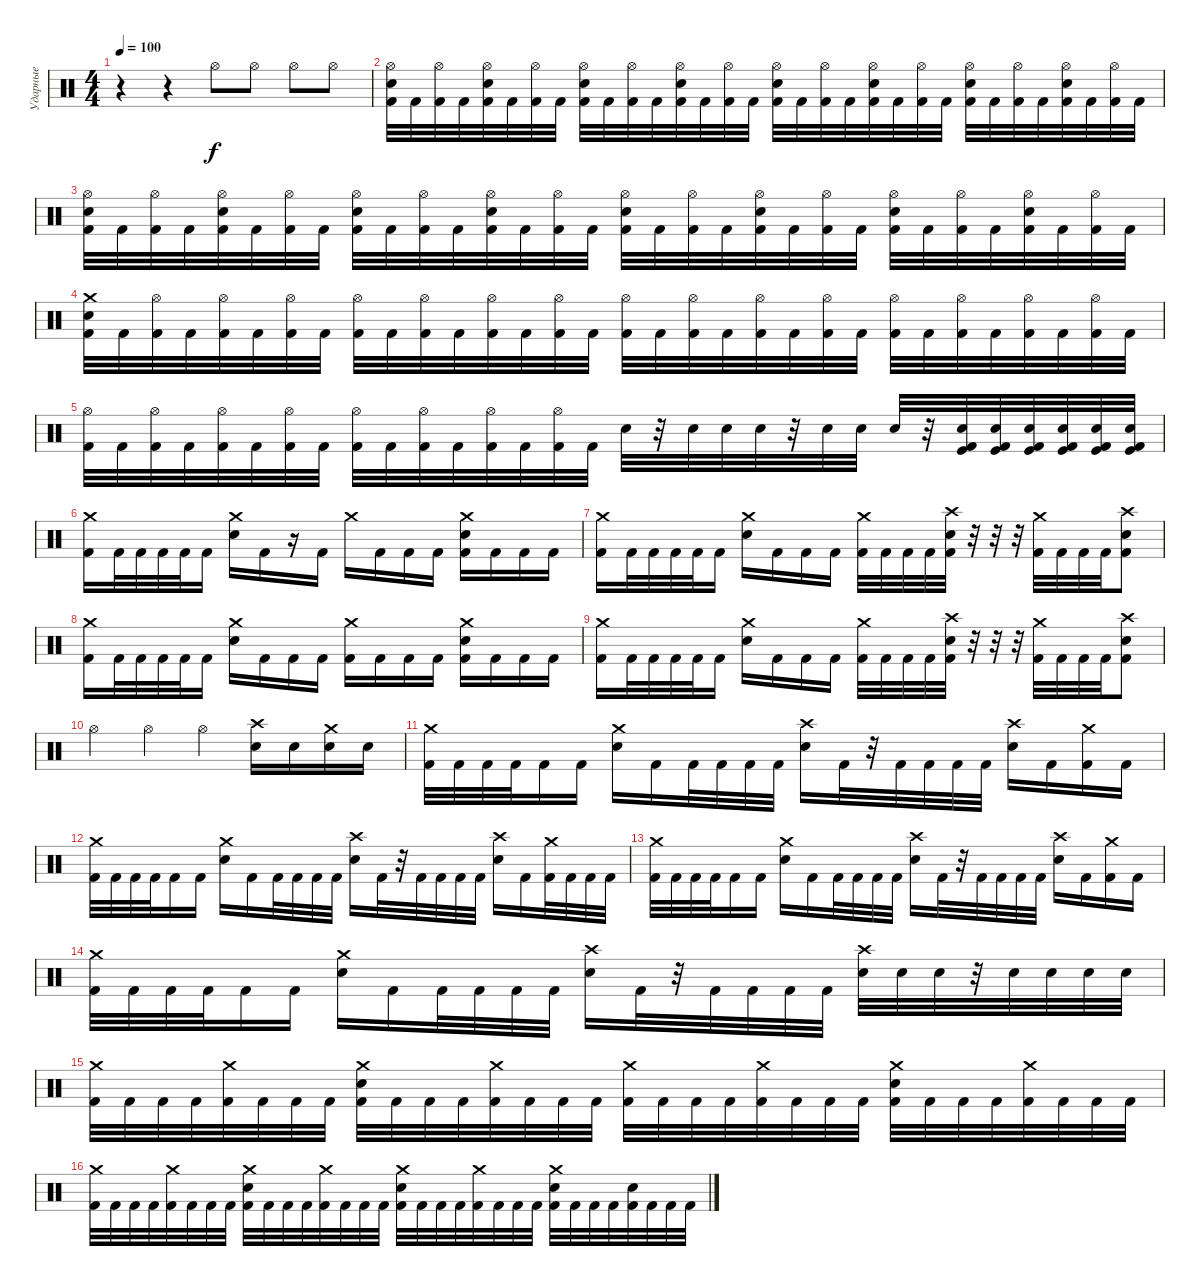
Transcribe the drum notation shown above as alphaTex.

\track ("Ударные" "Ударные") {instrument percussion}
\staff {score}
\articulation defaults
\ts (4 4)
\tempo 100
\clef neutral
\ks c
r.4{dy f} r.4 "Hi-Hat (open)".8 "Hi-Hat (open)".8 "Hi-Hat (open)".8 "Hi-Hat (open)".8 |
("Hi-Hat (open)" "Snare (hit) 2" "Kick (hit) 2").32 "Kick (hit) 2".32 ("Hi-Hat (open)" "Kick (hit) 2").32 "Kick (hit) 2".32 ("Hi-Hat (open)" "Snare (hit) 2" "Kick (hit) 2").32 "Kick (hit) 2".32 ("Hi-Hat (open)" "Kick (hit) 2").32 "Kick (hit) 2".32 ("Hi-Hat (open)" "Snare (hit) 2" "Kick (hit) 2").32 "Kick (hit) 2".32 ("Hi-Hat (open)" "Kick (hit) 2").32 "Kick (hit) 2".32 ("Hi-Hat (open)" "Snare (hit) 2" "Kick (hit) 2").32 "Kick (hit) 2".32 ("Hi-Hat (open)" "Kick (hit) 2").32 "Kick (hit) 2".32 ("Hi-Hat (open)" "Snare (hit) 2" "Kick (hit) 2").32 "Kick (hit) 2".32 ("Hi-Hat (open)" "Kick (hit) 2").32 "Kick (hit) 2".32 ("Hi-Hat (open)" "Snare (hit) 2" "Kick (hit) 2").32 "Kick (hit) 2".32 ("Hi-Hat (open)" "Kick (hit) 2").32 "Kick (hit) 2".32 ("Hi-Hat (open)" "Snare (hit) 2" "Kick (hit) 2").32 "Kick (hit) 2".32 ("Hi-Hat (open)" "Kick (hit) 2").32 "Kick (hit) 2".32 ("Hi-Hat (open)" "Snare (hit) 2" "Kick (hit) 2").32 "Kick (hit) 2".32 ("Hi-Hat (open)" "Kick (hit) 2").32 "Kick (hit) 2".32 |
("Hi-Hat (open)" "Snare (hit) 2" "Kick (hit) 2").32 "Kick (hit) 2".32 ("Hi-Hat (open)" "Kick (hit) 2").32 "Kick (hit) 2".32 ("Hi-Hat (open)" "Snare (hit) 2" "Kick (hit) 2").32 "Kick (hit) 2".32 ("Hi-Hat (open)" "Kick (hit) 2").32 "Kick (hit) 2".32 ("Hi-Hat (open)" "Snare (hit) 2" "Kick (hit) 2").32 "Kick (hit) 2".32 ("Hi-Hat (open)" "Kick (hit) 2").32 "Kick (hit) 2".32 ("Hi-Hat (open)" "Snare (hit) 2" "Kick (hit) 2").32 "Kick (hit) 2".32 ("Hi-Hat (open)" "Kick (hit) 2").32 "Kick (hit) 2".32 ("Hi-Hat (open)" "Snare (hit) 2" "Kick (hit) 2").32 "Kick (hit) 2".32 ("Hi-Hat (open)" "Kick (hit) 2").32 "Kick (hit) 2".32 ("Hi-Hat (open)" "Snare (hit) 2" "Kick (hit) 2").32 "Kick (hit) 2".32 ("Hi-Hat (open)" "Kick (hit) 2").32 "Kick (hit) 2".32 ("Hi-Hat (open)" "Snare (hit) 2" "Kick (hit) 2").32 "Kick (hit) 2".32 ("Hi-Hat (open)" "Kick (hit) 2").32 "Kick (hit) 2".32 ("Hi-Hat (open)" "Snare (hit) 2" "Kick (hit) 2").32 "Kick (hit) 2".32 ("Hi-Hat (open)" "Kick (hit) 2").32 "Kick (hit) 2".32 |
("Crash medium (hit)" "Snare (hit) 2" "Kick (hit) 2").32 "Kick (hit) 2".32 ("Hi-Hat (open)" "Kick (hit) 2").32 "Kick (hit) 2".32 ("Hi-Hat (open)" "Kick (hit) 2").32 "Kick (hit) 2".32 ("Hi-Hat (open)" "Kick (hit) 2").32 "Kick (hit) 2".32 ("Hi-Hat (open)" "Kick (hit) 2").32 "Kick (hit) 2".32 ("Hi-Hat (open)" "Kick (hit) 2").32 "Kick (hit) 2".32 ("Hi-Hat (open)" "Kick (hit) 2").32 "Kick (hit) 2".32 ("Hi-Hat (open)" "Kick (hit) 2").32 "Kick (hit) 2".32 ("Hi-Hat (open)" "Kick (hit) 2").32 "Kick (hit) 2".32 ("Hi-Hat (open)" "Kick (hit) 2").32 "Kick (hit) 2".32 ("Hi-Hat (open)" "Kick (hit) 2").32 "Kick (hit) 2".32 ("Hi-Hat (open)" "Kick (hit) 2").32 "Kick (hit) 2".32 ("Hi-Hat (open)" "Kick (hit) 2").32 "Kick (hit) 2".32 ("Hi-Hat (open)" "Kick (hit) 2").32 "Kick (hit) 2".32 ("Hi-Hat (open)" "Kick (hit) 2").32 "Kick (hit) 2".32 ("Hi-Hat (open)" "Kick (hit) 2").32 "Kick (hit) 2".32 |
("Hi-Hat (open)" "Kick (hit) 2").32 "Kick (hit) 2".32 ("Hi-Hat (open)" "Kick (hit) 2").32 "Kick (hit) 2".32 ("Hi-Hat (open)" "Kick (hit) 2").32 "Kick (hit) 2".32 ("Hi-Hat (open)" "Kick (hit) 2").32 "Kick (hit) 2".32 ("Hi-Hat (open)" "Kick (hit) 2").32 "Kick (hit) 2".32 ("Hi-Hat (open)" "Kick (hit) 2").32 "Kick (hit) 2".32 ("Hi-Hat (open)" "Kick (hit) 2").32 "Kick (hit) 2".32 ("Hi-Hat (open)" "Kick (hit) 2").32 "Kick (hit) 2".32 "Snare (hit) 2".32 r.32 "Snare (hit) 2".32 "Snare (hit) 2".32 "Snare (hit) 2".32 r.32 "Snare (hit) 2".32 "Snare (hit) 2".32 "Snare (hit) 2".32 r.32 ("Kick (hit)" "Snare (hit) 2" "Kick (hit) 2").32 ("Kick (hit)" "Snare (hit) 2" "Kick (hit) 2").32 ("Kick (hit)" "Snare (hit) 2" "Kick (hit) 2").32 ("Kick (hit)" "Snare (hit) 2" "Kick (hit) 2").32 ("Kick (hit)" "Snare (hit) 2" "Kick (hit) 2").32 ("Kick (hit)" "Snare (hit) 2" "Kick (hit) 2").32 |
("Crash medium (hit)" "Kick (hit) 2").16 "Kick (hit) 2".32 "Kick (hit) 2".32 "Kick (hit) 2".32 "Kick (hit) 2".32 "Kick (hit) 2"{tr (36 32)}.16 ("Crash medium (hit)" "Snare (hit) 2").16 "Kick (hit) 2".16 r.16 "Kick (hit) 2".16 "Crash medium (hit)".16 "Kick (hit) 2".16 "Kick (hit) 2".16 "Kick (hit) 2"{tr (36 32)}.16 ("Crash medium (hit)" "Snare (hit) 2" "Kick (hit) 2"{tr (36 32)}).16 "Kick (hit) 2".16 "Kick (hit) 2"{tr (36 32)}.16 "Kick (hit) 2".16 |
("Crash medium (hit)" "Kick (hit) 2").16 "Kick (hit) 2".32 "Kick (hit) 2".32 "Kick (hit) 2".32 "Kick (hit) 2".32 "Kick (hit) 2"{tr (36 32)}.16 ("Crash medium (hit)" "Snare (hit) 2").16 "Kick (hit) 2".16 "Kick (hit) 2".16 "Kick (hit) 2".16 ("Crash medium (hit)" "Kick (hit) 2").32 "Kick (hit) 2".32 "Kick (hit) 2".32 "Kick (hit) 2".32 ("Crash high (hit)" "Snare (hit) 2" "Kick (hit) 2").32 r.32 r.32 r.32 ("Crash medium (hit)" "Kick (hit) 2").32 "Kick (hit) 2".32 "Kick (hit) 2".32 "Kick (hit) 2".32 ("Crash high (hit)" "Snare (hit) 2" "Kick (hit) 2").8 |
("Crash medium (hit)" "Kick (hit) 2").16 "Kick (hit) 2".32 "Kick (hit) 2".32 "Kick (hit) 2".32 "Kick (hit) 2".32 "Kick (hit) 2"{tr (36 32)}.16 ("Crash medium (hit)" "Snare (hit) 2").16 "Kick (hit) 2".16 "Kick (hit) 2".16 "Kick (hit) 2".16 ("Crash medium (hit)" "Kick (hit) 2").16 "Kick (hit) 2".16 "Kick (hit) 2".16 "Kick (hit) 2"{tr (36 32)}.16 ("Crash medium (hit)" "Snare (hit) 2" "Kick (hit) 2"{tr (36 32)}).16 "Kick (hit) 2".16 "Kick (hit) 2"{tr (36 32)}.16 "Kick (hit) 2".16 |
("Crash medium (hit)" "Kick (hit) 2").16 "Kick (hit) 2".32 "Kick (hit) 2".32 "Kick (hit) 2".32 "Kick (hit) 2".32 "Kick (hit) 2"{tr (36 32)}.16 ("Crash medium (hit)" "Snare (hit) 2").16 "Kick (hit) 2".16 "Kick (hit) 2".16 "Kick (hit) 2".16 ("Crash medium (hit)" "Kick (hit) 2").32 "Kick (hit) 2".32 "Kick (hit) 2".32 "Kick (hit) 2".32 ("Crash high (hit)" "Snare (hit) 2" "Kick (hit) 2").32 r.32 r.32 r.32 ("Crash medium (hit)" "Kick (hit) 2").32 "Kick (hit) 2".32 "Kick (hit) 2".32 "Kick (hit) 2".32 ("Crash high (hit)" "Snare (hit) 2" "Kick (hit) 2").8 |
"Hi-Hat (open)".4 "Hi-Hat (open)".4 "Hi-Hat (open)".4 ("Crash high (hit)" "Snare (hit) 2").16 "Snare (hit) 2".16 ("Crash medium (hit)" "Snare (hit) 2").16 "Snare (hit) 2".16 |
("Crash medium (hit)" "Kick (hit) 2").32 "Kick (hit) 2".32 "Kick (hit) 2".32 "Kick (hit) 2".32 "Kick (hit) 2".16 "Kick (hit) 2".16 ("Crash medium (hit)" "Snare (hit) 2").16 "Kick (hit) 2".16 "Kick (hit) 2".32 "Kick (hit) 2".32 "Kick (hit) 2".32 "Kick (hit) 2".32 ("Crash high (hit)" "Snare (hit) 2").16 "Kick (hit) 2".32 r.32 "Kick (hit) 2".32 "Kick (hit) 2".32 "Kick (hit) 2".32 "Kick (hit) 2".32 ("Crash high (hit)" "Snare (hit) 2").16 "Kick (hit) 2".16 ("Crash medium (hit)" "Kick (hit) 2").16 "Kick (hit) 2".16 |
("Crash medium (hit)" "Kick (hit) 2").32 "Kick (hit) 2".32 "Kick (hit) 2".32 "Kick (hit) 2".32 "Kick (hit) 2".16 "Kick (hit) 2".16 ("Crash medium (hit)" "Snare (hit) 2").16 "Kick (hit) 2".16 "Kick (hit) 2".32 "Kick (hit) 2".32 "Kick (hit) 2".32 "Kick (hit) 2".32 ("Crash high (hit)" "Snare (hit) 2").16 "Kick (hit) 2".32 r.32 "Kick (hit) 2".32 "Kick (hit) 2".32 "Kick (hit) 2".32 "Kick (hit) 2".32 ("Crash high (hit)" "Snare (hit) 2").16 "Kick (hit) 2".16 ("Crash medium (hit)" "Kick (hit) 2").32 "Kick (hit) 2".32 "Kick (hit) 2".32 "Kick (hit) 2".32 |
("Crash medium (hit)" "Kick (hit) 2").32 "Kick (hit) 2".32 "Kick (hit) 2".32 "Kick (hit) 2".32 "Kick (hit) 2".16 "Kick (hit) 2".16 ("Crash medium (hit)" "Snare (hit) 2").16 "Kick (hit) 2".16 "Kick (hit) 2".32 "Kick (hit) 2".32 "Kick (hit) 2".32 "Kick (hit) 2".32 ("Crash high (hit)" "Snare (hit) 2").16 "Kick (hit) 2".32 r.32 "Kick (hit) 2".32 "Kick (hit) 2".32 "Kick (hit) 2".32 "Kick (hit) 2".32 ("Crash high (hit)" "Snare (hit) 2").16 "Kick (hit) 2".16 ("Crash medium (hit)" "Kick (hit) 2").16 "Kick (hit) 2".16 |
("Crash medium (hit)" "Kick (hit) 2").32 "Kick (hit) 2".32 "Kick (hit) 2".32 "Kick (hit) 2".32 "Kick (hit) 2".16 "Kick (hit) 2".16 ("Crash medium (hit)" "Snare (hit) 2").16 "Kick (hit) 2".16 "Kick (hit) 2".32 "Kick (hit) 2".32 "Kick (hit) 2".32 "Kick (hit) 2".32 ("Crash high (hit)" "Snare (hit) 2").16 "Kick (hit) 2".32 r.32 "Kick (hit) 2".32 "Kick (hit) 2".32 "Kick (hit) 2".32 "Kick (hit) 2".32 ("Crash high (hit)" "Snare (hit) 2").32 "Snare (hit) 2".32 "Snare (hit) 2".32 r.32 "Snare (hit) 2".32 "Snare (hit) 2".32 "Snare (hit) 2".32 "Snare (hit) 2".32 |
("Crash medium (hit)" "Kick (hit) 2").32 "Kick (hit) 2".32 "Kick (hit) 2".32 "Kick (hit) 2".32 ("Crash medium (hit)" "Kick (hit) 2").32 "Kick (hit) 2".32 "Kick (hit) 2".32 "Kick (hit) 2".32 ("Crash medium (hit)" "Snare (hit) 2" "Kick (hit) 2").32 "Kick (hit) 2".32 "Kick (hit) 2".32 "Kick (hit) 2".32 ("Crash medium (hit)" "Kick (hit) 2").32 "Kick (hit) 2".32 "Kick (hit) 2".32 "Kick (hit) 2".32 ("Crash medium (hit)" "Kick (hit) 2").32 "Kick (hit) 2".32 "Kick (hit) 2".32 "Kick (hit) 2".32 ("Crash medium (hit)" "Kick (hit) 2").32 "Kick (hit) 2".32 "Kick (hit) 2".32 "Kick (hit) 2".32 ("Crash medium (hit)" "Snare (hit) 2" "Kick (hit) 2").32 "Kick (hit) 2".32 "Kick (hit) 2".32 "Kick (hit) 2".32 ("Crash medium (hit)" "Kick (hit) 2").32 "Kick (hit) 2".32 "Kick (hit) 2".32 "Kick (hit) 2".32 |
("Crash medium (hit)" "Kick (hit) 2").32 "Kick (hit) 2".32 "Kick (hit) 2".32 "Kick (hit) 2".32 ("Crash medium (hit)" "Kick (hit) 2").32 "Kick (hit) 2".32 "Kick (hit) 2".32 "Kick (hit) 2".32 ("Crash medium (hit)" "Snare (hit) 2" "Kick (hit) 2").32 "Kick (hit) 2".32 "Kick (hit) 2".32 "Kick (hit) 2".32 ("Crash medium (hit)" "Kick (hit) 2").32 "Kick (hit) 2".32 "Kick (hit) 2".32 "Kick (hit) 2".32 ("Crash medium (hit)" "Snare (hit) 2" "Kick (hit) 2").32 "Kick (hit) 2".32 "Kick (hit) 2".32 "Kick (hit) 2".32 ("Crash medium (hit)" "Kick (hit) 2").32 "Kick (hit) 2".32 "Kick (hit) 2".32 "Kick (hit) 2".32 ("Crash medium (hit)" "Snare (hit) 2" "Kick (hit) 2").32 "Kick (hit) 2".32 "Kick (hit) 2".32 "Kick (hit) 2".32 ("Snare (hit) 2" "Kick (hit) 2").32 "Kick (hit) 2".32 "Kick (hit) 2".32 "Kick (hit) 2".32
